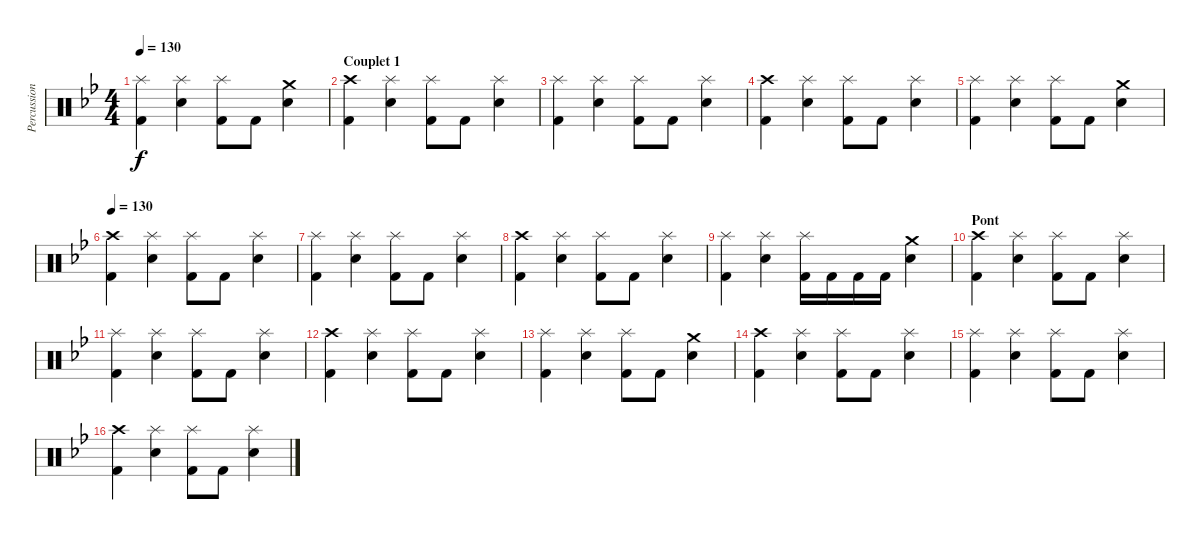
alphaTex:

\track ("Percussions" "Percussion") {instrument percussion}
\staff {score}
\articulation defaults
\ts (4 4)
\tempo 130
\clef neutral
\ks gminor
("Splash (hit)" "Kick (hit) 2").4{dy f} ("Splash (hit)" "Electric Snare (hit)").4 ("Splash (hit)" "Kick (hit) 2").8 "Kick (hit) 2".8 ("Crash medium (hit)" "Electric Snare (hit)").4 |
\section ("" "Couplet 1")
("Crash high (hit)" "Kick (hit) 2").4 ("Splash (hit)" "Electric Snare (hit)").4 ("Splash (hit)" "Kick (hit) 2").8 "Kick (hit) 2".8 ("Splash (hit)" "Electric Snare (hit)").4 |
("Splash (hit)" "Kick (hit) 2").4 ("Splash (hit)" "Electric Snare (hit)").4 ("Splash (hit)" "Kick (hit) 2").8 "Kick (hit) 2".8 ("Splash (hit)" "Electric Snare (hit)").4 |
("Crash high (hit)" "Kick (hit) 2").4 ("Splash (hit)" "Electric Snare (hit)").4 ("Splash (hit)" "Kick (hit) 2").8 "Kick (hit) 2".8 ("Splash (hit)" "Electric Snare (hit)").4 |
("Splash (hit)" "Kick (hit) 2").4 ("Splash (hit)" "Electric Snare (hit)").4 ("Splash (hit)" "Kick (hit) 2").8 "Kick (hit) 2".8 ("Crash medium (hit)" "Electric Snare (hit)").4 |
\tempo 130
("Crash high (hit)" "Kick (hit) 2").4 ("Splash (hit)" "Electric Snare (hit)").4 ("Splash (hit)" "Kick (hit) 2").8 "Kick (hit) 2".8 ("Splash (hit)" "Electric Snare (hit)").4 |
("Splash (hit)" "Kick (hit) 2").4 ("Splash (hit)" "Electric Snare (hit)").4 ("Splash (hit)" "Kick (hit) 2").8 "Kick (hit) 2".8 ("Splash (hit)" "Electric Snare (hit)").4 |
("Crash high (hit)" "Kick (hit) 2").4 ("Splash (hit)" "Electric Snare (hit)").4 ("Splash (hit)" "Kick (hit) 2").8 "Kick (hit) 2".8 ("Splash (hit)" "Electric Snare (hit)").4 |
("Splash (hit)" "Kick (hit) 2").4 ("Splash (hit)" "Electric Snare (hit)").4 ("Splash (hit)" "Kick (hit) 2").16 "Kick (hit) 2".16 "Kick (hit) 2".16 "Kick (hit) 2".16 ("Crash medium (hit)" "Electric Snare (hit)").4 |
\section ("" "Pont")
("Crash high (hit)" "Kick (hit) 2").4 ("Splash (hit)" "Electric Snare (hit)").4 ("Splash (hit)" "Kick (hit) 2").8 "Kick (hit) 2".8 ("Splash (hit)" "Electric Snare (hit)").4 |
("Splash (hit)" "Kick (hit) 2").4 ("Splash (hit)" "Electric Snare (hit)").4 ("Splash (hit)" "Kick (hit) 2").8 "Kick (hit) 2".8 ("Splash (hit)" "Electric Snare (hit)").4 |
("Crash high (hit)" "Kick (hit) 2").4 ("Splash (hit)" "Electric Snare (hit)").4 ("Splash (hit)" "Kick (hit) 2").8 "Kick (hit) 2".8 ("Splash (hit)" "Electric Snare (hit)").4 |
("Splash (hit)" "Kick (hit) 2").4 ("Splash (hit)" "Electric Snare (hit)").4 ("Splash (hit)" "Kick (hit) 2").8 "Kick (hit) 2".8 ("Crash medium (hit)" "Electric Snare (hit)").4 |
("Crash high (hit)" "Kick (hit) 2").4 ("Splash (hit)" "Electric Snare (hit)").4 ("Splash (hit)" "Kick (hit) 2").8 "Kick (hit) 2".8 ("Splash (hit)" "Electric Snare (hit)").4 |
("Splash (hit)" "Kick (hit) 2").4 ("Splash (hit)" "Electric Snare (hit)").4 ("Splash (hit)" "Kick (hit) 2").8 "Kick (hit) 2".8 ("Splash (hit)" "Electric Snare (hit)").4 |
("Crash high (hit)" "Kick (hit) 2").4 ("Splash (hit)" "Electric Snare (hit)").4 ("Splash (hit)" "Kick (hit) 2").8 "Kick (hit) 2".8 ("Splash (hit)" "Electric Snare (hit)").4
